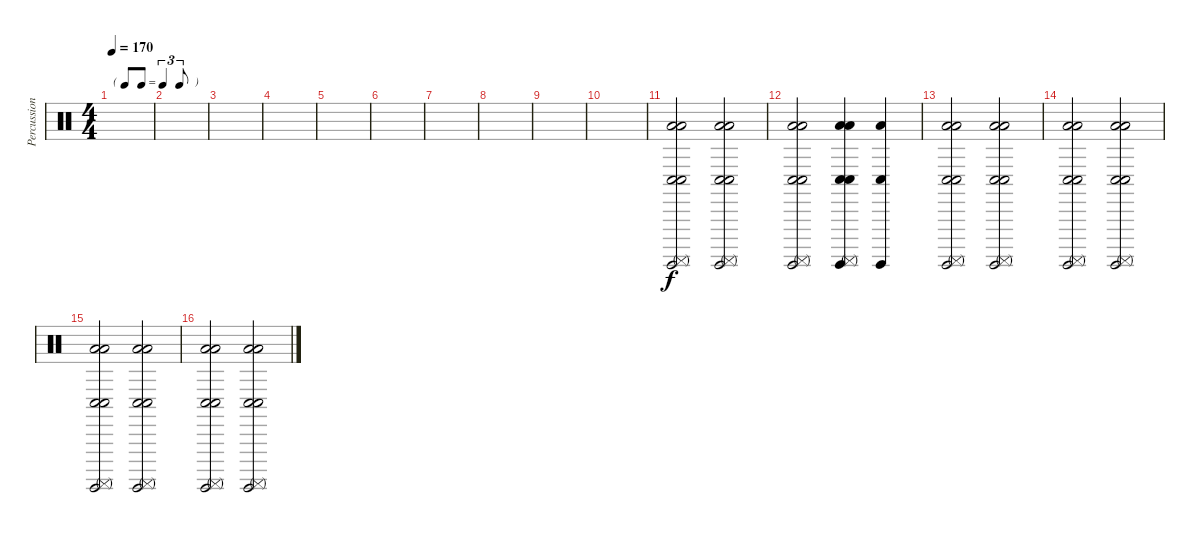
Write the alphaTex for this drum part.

\track ("Percussions" "Percussion") {instrument percussion}
\staff {score}
\articulation defaults
\ts (4 4)
\tf triplet8th
\tempo 170
\clef neutral
\ks c
|
|
|
|
|
|
|
|
|
|
("Conga low (hit)" "Conga low (hit)" "Low Floor Tom (hit)" "Surdo (hit)" "Surdo (mute)" "Low Floor Tom (hit)").2 ("Conga low (hit)" "Conga low (hit)" "Low Floor Tom (hit)" "Surdo (hit)" "Surdo (mute)" "Low Floor Tom (hit)").2 |
("Conga low (hit)" "Conga low (hit)" "Low Floor Tom (hit)" "Surdo (hit)" "Surdo (mute)" "Low Floor Tom (hit)").2 ("Conga low (hit)" "Conga low (hit)" "Low Floor Tom (hit)" "Surdo (hit)" "Surdo (mute)" "Low Floor Tom (hit)").4 ("Conga low (hit)" "Low Floor Tom (hit)" "Surdo (hit)").4 |
("Conga low (hit)" "Conga low (hit)" "Low Floor Tom (hit)" "Surdo (hit)" "Surdo (mute)" "Low Floor Tom (hit)").2 ("Conga low (hit)" "Conga low (hit)" "Low Floor Tom (hit)" "Surdo (hit)" "Surdo (mute)" "Low Floor Tom (hit)").2 |
("Conga low (hit)" "Conga low (hit)" "Low Floor Tom (hit)" "Surdo (hit)" "Surdo (mute)" "Low Floor Tom (hit)").2 ("Conga low (hit)" "Conga low (hit)" "Low Floor Tom (hit)" "Surdo (hit)" "Surdo (mute)" "Low Floor Tom (hit)").2 |
("Conga low (hit)" "Conga low (hit)" "Low Floor Tom (hit)" "Surdo (hit)" "Surdo (mute)" "Low Floor Tom (hit)").2 ("Conga low (hit)" "Conga low (hit)" "Low Floor Tom (hit)" "Surdo (hit)" "Surdo (mute)" "Low Floor Tom (hit)").2 |
("Conga low (hit)" "Conga low (hit)" "Low Floor Tom (hit)" "Surdo (hit)" "Surdo (mute)" "Low Floor Tom (hit)").2 ("Conga low (hit)" "Conga low (hit)" "Low Floor Tom (hit)" "Surdo (hit)" "Surdo (mute)" "Low Floor Tom (hit)").2
